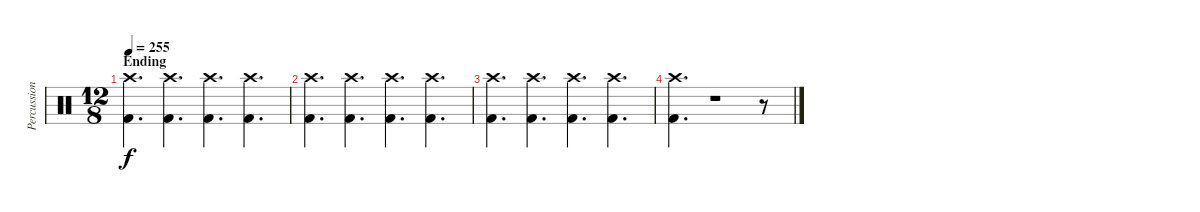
\track ("Percussion" "Percussion") {instrument percussion}
\staff {score}
\articulation defaults
\ts (12 8)
\section ("" "Ending")
\tempo 255
\clef neutral
\ks c
("Crash high (hit)" "Kick (hit) 2").4{d dy f} ("Crash high (hit)" "Kick (hit) 2").4{d} ("Crash high (hit)" "Kick (hit) 2").4{d} ("Crash high (hit)" "Kick (hit) 2").4{d} |
("Crash high (hit)" "Kick (hit) 2").4{d} ("Crash high (hit)" "Kick (hit) 2").4{d} ("Crash high (hit)" "Kick (hit) 2").4{d} ("Crash high (hit)" "Kick (hit) 2").4{d} |
("Crash high (hit)" "Kick (hit) 2").4{d} ("Crash high (hit)" "Kick (hit) 2").4{d} ("Crash high (hit)" "Kick (hit) 2").4{d} ("Crash high (hit)" "Kick (hit) 2").4{d} |
("Crash high (hit)" "Kick (hit) 2").4{d} r.1 r.8
